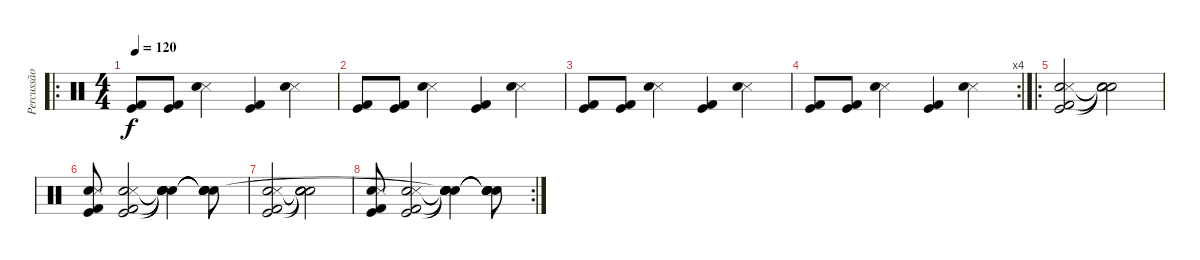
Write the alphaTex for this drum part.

\track ("Percussão" "Percussão") {instrument percussion}
\staff {score}
\articulation defaults
\ro
\ts (4 4)
\tempo 120
\clef neutral
\ks c
("Kick (hit)" "Kick (hit) 2").8{dy f} ("Kick (hit)" "Kick (hit) 2").8 ("Snare (side stick) 3" "Snare (hit) 2").4 ("Kick (hit)" "Kick (hit) 2").4 ("Snare (side stick) 3" "Snare (hit) 2").4 |
("Kick (hit)" "Kick (hit) 2").8 ("Kick (hit)" "Kick (hit) 2").8 ("Snare (side stick) 3" "Snare (hit) 2").4 ("Kick (hit)" "Kick (hit) 2").4 ("Snare (side stick) 3" "Snare (hit) 2").4 |
("Kick (hit)" "Kick (hit) 2").8 ("Kick (hit)" "Kick (hit) 2").8 ("Snare (side stick) 3" "Snare (hit) 2").4 ("Kick (hit)" "Kick (hit) 2").4 ("Snare (side stick) 3" "Snare (hit) 2").4 |
\rc 4
("Kick (hit)" "Kick (hit) 2").8 ("Kick (hit)" "Kick (hit) 2").8 ("Snare (side stick) 3" "Snare (hit) 2").4 ("Kick (hit)" "Kick (hit) 2").4 ("Snare (side stick) 3" "Snare (hit) 2").4 |
\ro
("Snare (hit) 2" "Snare (side stick) 3" "Kick (hit)" "Kick (hit) 2").2 ("Snare (hit)"{t} "Snare (hit)"{t} "Snare (hit)"{t} "Snare (hit)"{t}).2 |
("Snare (hit) 2" "Snare (side stick) 3" "Kick (hit)" "Kick (hit) 2").8 ("Snare (hit) 2" "Snare (side stick) 3" "Kick (hit)" "Kick (hit) 2").2 ("Snare (hit)"{t} "Snare (hit)"{t} "Snare (hit)"{t} "Snare (hit)"{t} "Snare (hit)").4 ("Snare (hit)"{t} "Snare (hit)"{t} "Snare (hit)"{t} "Snare (hit)"{t} "Snare (hit)"{t}).8 |
("Snare (hit) 2" "Snare (side stick) 3" "Kick (hit)" "Kick (hit) 2").2 ("Snare (hit)"{t} "Snare (hit)"{t} "Snare (hit)"{t} "Snare (hit)"{t}).2 |
\rc 2
("Snare (hit) 2" "Snare (side stick) 3" "Kick (hit)" "Kick (hit) 2").8 ("Snare (hit) 2" "Snare (side stick) 3" "Kick (hit)" "Kick (hit) 2").2 ("Snare (hit)"{t} "Snare (hit)"{t} "Snare (hit)"{t} "Snare (hit)"{t} "Snare (hit)"{t}).4 ("Snare (hit)"{t} "Snare (hit)"{t} "Snare (hit)"{t} "Snare (hit)"{t} "Snare (hit)"{t}).8
